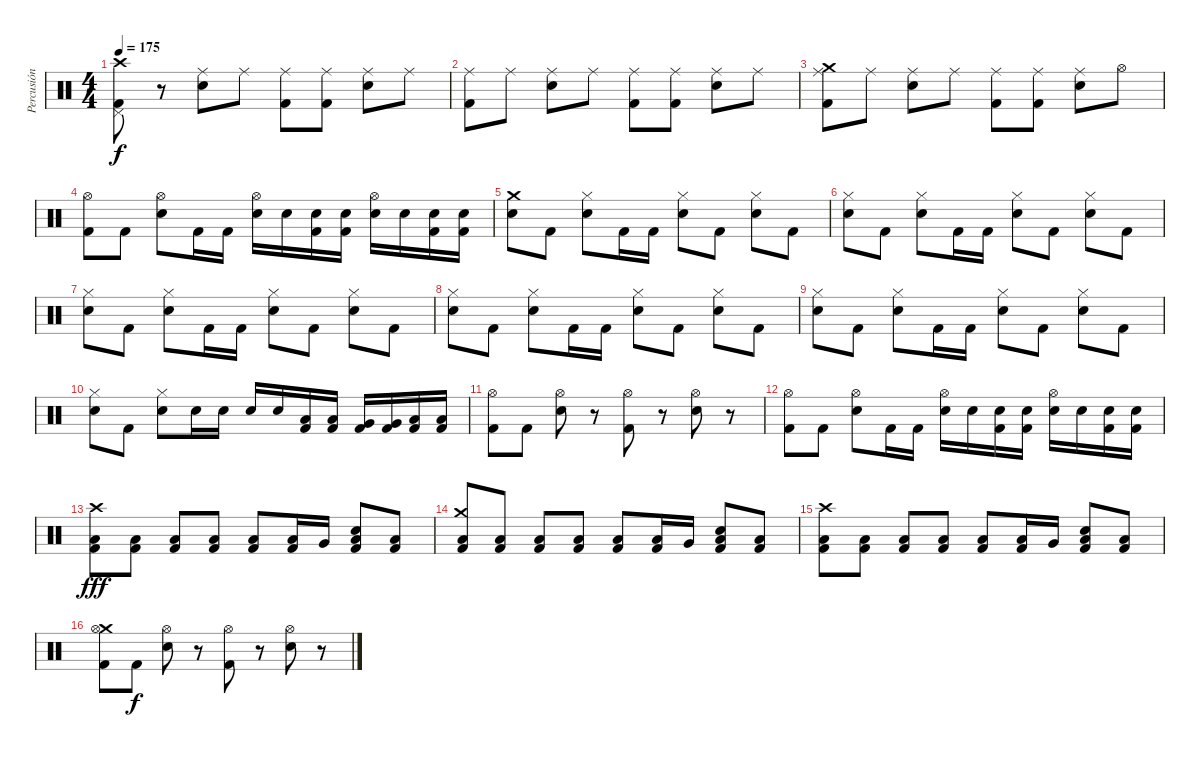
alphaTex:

\track ("Percusión" "Percusión") {instrument percussion}
\staff {score}
\articulation defaults
\ts (4 4)
\tempo 175
\clef neutral
\ks c
("Crash high (hit)" "Pedal Hi-Hat (hit)" "Kick (hit) 2").8{dy f} r.8 ("Ride (middle)" "Electric Snare (hit)").8 "Ride (middle)".8 ("Ride (middle)" "Kick (hit) 2").8 ("Ride (middle)" "Kick (hit) 2").8 ("Ride (middle)" "Electric Snare (hit)").8 "Ride (middle)".8 |
("Ride (middle)" "Kick (hit) 2").8 "Ride (middle)".8 ("Ride (middle)" "Electric Snare (hit)").8 "Ride (middle)".8 ("Ride (middle)" "Kick (hit) 2").8 ("Ride (middle)" "Kick (hit) 2").8 ("Ride (middle)" "Electric Snare (hit)").8 "Ride (middle)".8 |
("Crash medium (hit)" "Ride (middle)" "Kick (hit) 2").8 "Ride (middle)".8 ("Ride (middle)" "Electric Snare (hit)").8 "Ride (middle)".8 ("Ride (middle)" "Kick (hit) 2").8 ("Ride (middle)" "Kick (hit) 2").8 ("Ride (middle)" "Electric Snare (hit)").8 "Hi-Hat (open)".8 |
("Hi-Hat (open)" "Kick (hit) 2").8 "Kick (hit) 2".8 ("Hi-Hat (open)" "Electric Snare (hit)").8 "Kick (hit) 2".16 "Kick (hit) 2".16 ("Hi-Hat (open)" "Electric Snare (hit)").16 "Electric Snare (hit)".16 ("Electric Snare (hit)" "Kick (hit) 2").16 ("Electric Snare (hit)" "Kick (hit) 2").16 ("Hi-Hat (open)" "Electric Snare (hit)").16 "Electric Snare (hit)".16 ("Electric Snare (hit)" "Kick (hit) 2").16 ("Electric Snare (hit)" "Kick (hit) 2").16 |
("Crash medium (hit)" "Electric Snare (hit)").8 "Kick (hit) 2".8 ("Hi-Hat (closed)" "Electric Snare (hit)").8 "Kick (hit) 2".16 "Kick (hit) 2".16 ("Hi-Hat (closed)" "Electric Snare (hit)").8 "Kick (hit) 2".8 ("Hi-Hat (closed)" "Electric Snare (hit)").8 "Kick (hit) 2".8 |
("Hi-Hat (closed)" "Electric Snare (hit)").8 "Kick (hit) 2".8 ("Hi-Hat (closed)" "Electric Snare (hit)").8 "Kick (hit) 2".16 "Kick (hit) 2".16 ("Hi-Hat (closed)" "Electric Snare (hit)").8 "Kick (hit) 2".8 ("Hi-Hat (closed)" "Electric Snare (hit)").8 "Kick (hit) 2".8 |
("Hi-Hat (closed)" "Electric Snare (hit)").8 "Kick (hit) 2".8 ("Hi-Hat (closed)" "Electric Snare (hit)").8 "Kick (hit) 2".16 "Kick (hit) 2".16 ("Hi-Hat (closed)" "Electric Snare (hit)").8 "Kick (hit) 2".8 ("Hi-Hat (closed)" "Electric Snare (hit)").8 "Kick (hit) 2".8 |
("Hi-Hat (closed)" "Electric Snare (hit)").8 "Kick (hit) 2".8 ("Hi-Hat (closed)" "Electric Snare (hit)").8 "Kick (hit) 2".16 "Kick (hit) 2".16 ("Hi-Hat (closed)" "Electric Snare (hit)").8 "Kick (hit) 2".8 ("Hi-Hat (closed)" "Electric Snare (hit)").8 "Kick (hit) 2".8 |
("Hi-Hat (closed)" "Electric Snare (hit)").8 "Kick (hit) 2".8 ("Hi-Hat (closed)" "Electric Snare (hit)").8 "Kick (hit) 2".16 "Kick (hit) 2".16 ("Hi-Hat (closed)" "Electric Snare (hit)").8 "Kick (hit) 2".8 ("Hi-Hat (closed)" "Electric Snare (hit)").8 "Kick (hit) 2".8 |
("Hi-Hat (closed)" "Electric Snare (hit)").8 "Kick (hit) 2".8 ("Hi-Hat (closed)" "Electric Snare (hit)").8 "Electric Snare (hit)".16 "Electric Snare (hit)".16 "Electric Snare (hit)".16 "Electric Snare (hit)".16 ("Low Tom (hit)" "Kick (hit) 2").16 ("Low Tom (hit)" "Kick (hit) 2").16 ("Very Low Tom (hit)" "Kick (hit) 2").16 ("Very Low Tom (hit)" "Kick (hit) 2").16 ("Low Floor Tom (hit)" "Kick (hit) 2").16 ("Low Floor Tom (hit)" "Kick (hit) 2").16 |
("Hi-Hat (open)" "Kick (hit) 2").8 "Kick (hit) 2".8 ("Hi-Hat (open)" "Electric Snare (hit)").8 r.8 ("Hi-Hat (open)" "Kick (hit) 2").8 r.8 ("Hi-Hat (open)" "Electric Snare (hit)").8 r.8 |
("Hi-Hat (open)" "Kick (hit) 2").8 "Kick (hit) 2".8 ("Hi-Hat (open)" "Electric Snare (hit)").8 "Kick (hit) 2".16 "Kick (hit) 2".16 ("Hi-Hat (open)" "Electric Snare (hit)").16 "Electric Snare (hit)".16 ("Electric Snare (hit)" "Kick (hit) 2").16 ("Electric Snare (hit)" "Kick (hit) 2").16 ("Hi-Hat (open)" "Electric Snare (hit)").16 "Electric Snare (hit)".16 ("Electric Snare (hit)" "Kick (hit) 2").16 ("Electric Snare (hit)" "Kick (hit) 2").16 |
("Crash high (hit)" "Low Tom (hit)" "Kick (hit) 2").8{dy fff} ("Low Tom (hit)" "Kick (hit) 2").8 ("Low Tom (hit)" "Kick (hit) 2").8 ("Low Tom (hit)" "Kick (hit) 2").8 ("Low Tom (hit)" "Kick (hit) 2").8 ("Low Tom (hit)" "Kick (hit) 2").16 "Very Low Tom (hit)".16 ("Low Tom (hit)" "Electric Snare (hit)" "Kick (hit) 2").8 ("Low Tom (hit)" "Kick (hit) 2").8 |
("Crash medium (hit)" "Low Tom (hit)" "Kick (hit) 2").8 ("Low Tom (hit)" "Kick (hit) 2").8 ("Low Tom (hit)" "Kick (hit) 2").8 ("Low Tom (hit)" "Kick (hit) 2").8 ("Low Tom (hit)" "Kick (hit) 2").8 ("Low Tom (hit)" "Kick (hit) 2").16 "Very Low Tom (hit)".16 ("Low Tom (hit)" "Electric Snare (hit)" "Kick (hit) 2").8 ("Low Tom (hit)" "Kick (hit) 2").8 |
("Crash high (hit)" "Low Tom (hit)" "Kick (hit) 2").8 ("Low Tom (hit)" "Kick (hit) 2").8 ("Low Tom (hit)" "Kick (hit) 2").8 ("Low Tom (hit)" "Kick (hit) 2").8 ("Low Tom (hit)" "Kick (hit) 2").8 ("Low Tom (hit)" "Kick (hit) 2").16 "Very Low Tom (hit)".16 ("Low Tom (hit)" "Electric Snare (hit)" "Kick (hit) 2").8 ("Low Tom (hit)" "Kick (hit) 2").8 |
("Crash medium (hit)" "Hi-Hat (open)" "Kick (hit) 2").8 "Kick (hit) 2".8{dy f} ("Hi-Hat (open)" "Electric Snare (hit)").8 r.8 ("Hi-Hat (open)" "Kick (hit) 2").8 r.8 ("Hi-Hat (open)" "Electric Snare (hit)").8 r.8
